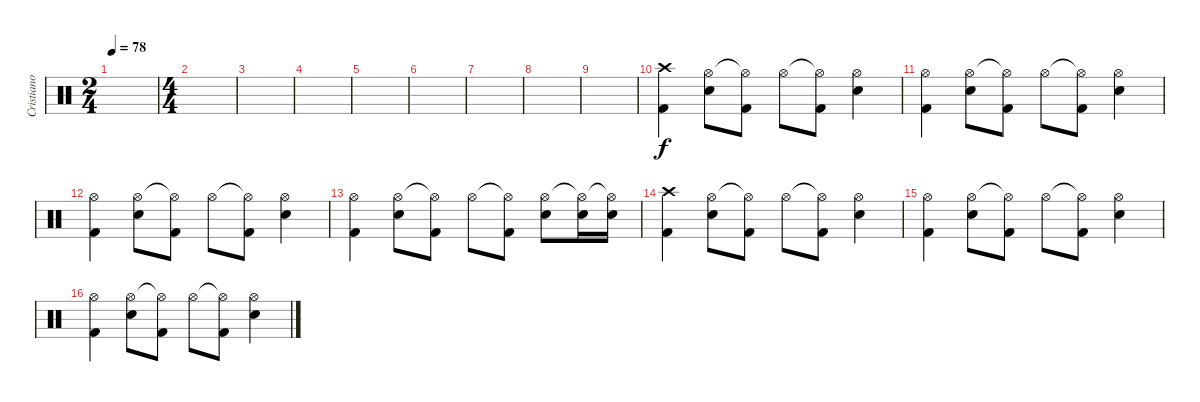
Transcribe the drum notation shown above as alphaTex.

\track ("Cristiano Mozzati" "Cristiano ") {instrument percussion}
\staff {score}
\articulation defaults
\ts (2 4)
\tempo 78
\clef neutral
\ks c
|
\ts (4 4)
|
|
|
|
|
|
|
|
("Crash high (hit)" "Kick (hit) 2").4 ("Hi-Hat (open)" "Electric Snare (hit)").8 ("Hi-Hat (open)"{t} "Kick (hit) 2").8 "Hi-Hat (open)".8 ("Hi-Hat (open)"{t} "Kick (hit) 2").8 ("Hi-Hat (open)" "Electric Snare (hit)").4 |
("Hi-Hat (open)" "Kick (hit) 2").4 ("Hi-Hat (open)" "Electric Snare (hit)").8 ("Hi-Hat (open)"{t} "Kick (hit) 2").8 "Hi-Hat (open)".8 ("Hi-Hat (open)"{t} "Kick (hit) 2").8 ("Hi-Hat (open)" "Electric Snare (hit)").4 |
("Hi-Hat (open)" "Kick (hit) 2").4 ("Hi-Hat (open)" "Electric Snare (hit)").8 ("Hi-Hat (open)"{t} "Kick (hit) 2").8 "Hi-Hat (open)".8 ("Hi-Hat (open)"{t} "Kick (hit) 2").8 ("Hi-Hat (open)" "Electric Snare (hit)").4 |
("Hi-Hat (open)" "Kick (hit) 2").4 ("Hi-Hat (open)" "Electric Snare (hit)").8 ("Hi-Hat (open)"{t} "Kick (hit) 2").8 "Hi-Hat (open)".8 ("Hi-Hat (open)"{t} "Kick (hit) 2").8 ("Hi-Hat (open)" "Electric Snare (hit)").8 ("Hi-Hat (open)"{t} "Electric Snare (hit)").16 ("Hi-Hat (open)"{t} "Electric Snare (hit)").16 |
("Crash high (hit)" "Kick (hit) 2").4 ("Hi-Hat (open)" "Electric Snare (hit)").8 ("Hi-Hat (open)"{t} "Kick (hit) 2").8 "Hi-Hat (open)".8 ("Hi-Hat (open)"{t} "Kick (hit) 2").8 ("Hi-Hat (open)" "Electric Snare (hit)").4 |
("Hi-Hat (open)" "Kick (hit) 2").4 ("Hi-Hat (open)" "Electric Snare (hit)").8 ("Hi-Hat (open)"{t} "Kick (hit) 2").8 "Hi-Hat (open)".8 ("Hi-Hat (open)"{t} "Kick (hit) 2").8 ("Hi-Hat (open)" "Electric Snare (hit)").4 |
("Hi-Hat (open)" "Kick (hit) 2").4 ("Hi-Hat (open)" "Electric Snare (hit)").8 ("Hi-Hat (open)"{t} "Kick (hit) 2").8 "Hi-Hat (open)".8 ("Hi-Hat (open)"{t} "Kick (hit) 2").8 ("Hi-Hat (open)" "Electric Snare (hit)").4
